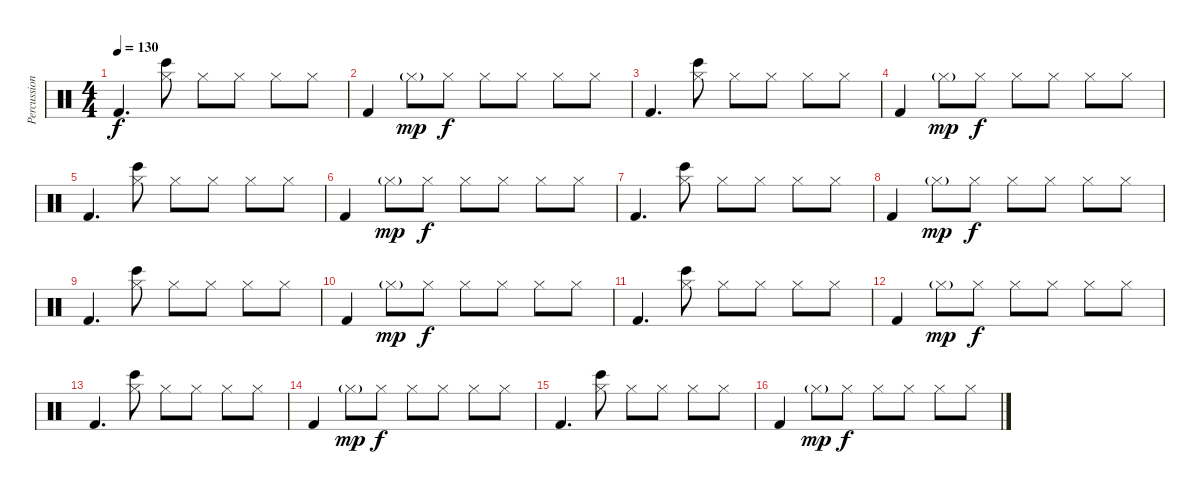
\track ("Percussion" "Percussion") {instrument percussion}
\staff {score}
\articulation defaults
\ts (4 4)
\tempo 130
\clef neutral
\ks c "Kick (hit) 2".4{d dy f}
("Hi-Hat (closed)" "Bongo High (hit)").8 "Hi-Hat (closed)".8 "Hi-Hat (closed)".8 "Hi-Hat (closed)".8 "Hi-Hat (closed)".8 |
"Kick (hit) 2".4 "Hi-Hat (closed)"{g}.8{dy mp} "Hi-Hat (closed)".8{dy f} "Hi-Hat (closed)".8 "Hi-Hat (closed)".8 "Hi-Hat (closed)".8 "Hi-Hat (closed)".8 |
"Kick (hit) 2".4{d} ("Hi-Hat (closed)" "Bongo High (hit)").8 "Hi-Hat (closed)".8 "Hi-Hat (closed)".8 "Hi-Hat (closed)".8 "Hi-Hat (closed)".8 |
"Kick (hit) 2".4 "Hi-Hat (closed)"{g}.8{dy mp} "Hi-Hat (closed)".8{dy f} "Hi-Hat (closed)".8 "Hi-Hat (closed)".8 "Hi-Hat (closed)".8 "Hi-Hat (closed)".8 |
"Kick (hit) 2".4{d} ("Hi-Hat (closed)" "Bongo High (hit)").8 "Hi-Hat (closed)".8 "Hi-Hat (closed)".8 "Hi-Hat (closed)".8 "Hi-Hat (closed)".8 |
"Kick (hit) 2".4 "Hi-Hat (closed)"{g}.8{dy mp} "Hi-Hat (closed)".8{dy f} "Hi-Hat (closed)".8 "Hi-Hat (closed)".8 "Hi-Hat (closed)".8 "Hi-Hat (closed)".8 |
"Kick (hit) 2".4{d} ("Hi-Hat (closed)" "Bongo High (hit)").8 "Hi-Hat (closed)".8 "Hi-Hat (closed)".8 "Hi-Hat (closed)".8 "Hi-Hat (closed)".8 |
"Kick (hit) 2".4 "Hi-Hat (closed)"{g}.8{dy mp} "Hi-Hat (closed)".8{dy f} "Hi-Hat (closed)".8 "Hi-Hat (closed)".8 "Hi-Hat (closed)".8 "Hi-Hat (closed)".8 |
"Kick (hit) 2".4{d} ("Hi-Hat (closed)" "Bongo High (hit)").8 "Hi-Hat (closed)".8 "Hi-Hat (closed)".8 "Hi-Hat (closed)".8 "Hi-Hat (closed)".8 |
"Kick (hit) 2".4 "Hi-Hat (closed)"{g}.8{dy mp} "Hi-Hat (closed)".8{dy f} "Hi-Hat (closed)".8 "Hi-Hat (closed)".8 "Hi-Hat (closed)".8 "Hi-Hat (closed)".8 |
"Kick (hit) 2".4{d} ("Hi-Hat (closed)" "Bongo High (hit)").8 "Hi-Hat (closed)".8 "Hi-Hat (closed)".8 "Hi-Hat (closed)".8 "Hi-Hat (closed)".8 |
"Kick (hit) 2".4 "Hi-Hat (closed)"{g}.8{dy mp} "Hi-Hat (closed)".8{dy f} "Hi-Hat (closed)".8 "Hi-Hat (closed)".8 "Hi-Hat (closed)".8 "Hi-Hat (closed)".8 |
"Kick (hit) 2".4{d} ("Hi-Hat (closed)" "Bongo High (hit)").8 "Hi-Hat (closed)".8 "Hi-Hat (closed)".8 "Hi-Hat (closed)".8 "Hi-Hat (closed)".8 |
"Kick (hit) 2".4 "Hi-Hat (closed)"{g}.8{dy mp} "Hi-Hat (closed)".8{dy f} "Hi-Hat (closed)".8 "Hi-Hat (closed)".8 "Hi-Hat (closed)".8 "Hi-Hat (closed)".8 |
"Kick (hit) 2".4{d} ("Hi-Hat (closed)" "Bongo High (hit)").8 "Hi-Hat (closed)".8 "Hi-Hat (closed)".8 "Hi-Hat (closed)".8 "Hi-Hat (closed)".8 |
"Kick (hit) 2".4 "Hi-Hat (closed)"{g}.8{dy mp} "Hi-Hat (closed)".8{dy f} "Hi-Hat (closed)".8 "Hi-Hat (closed)".8 "Hi-Hat (closed)".8 "Hi-Hat (closed)".8
